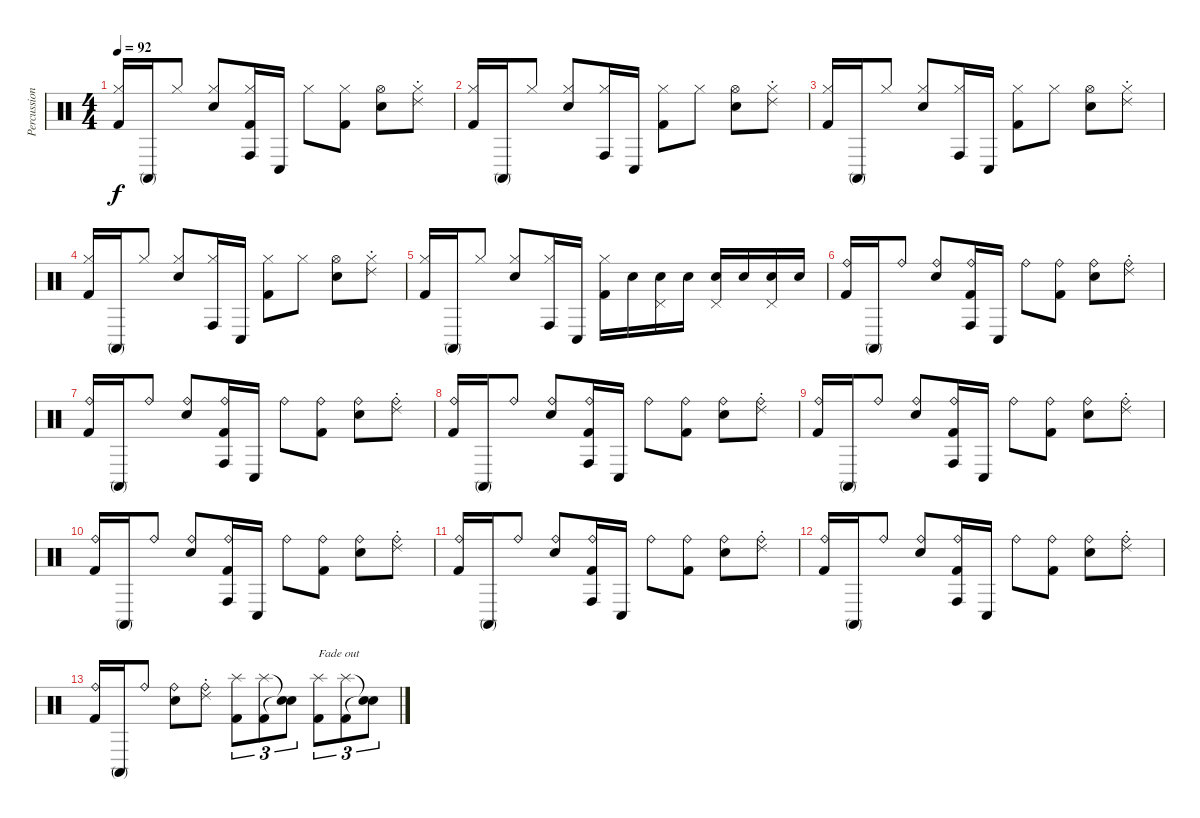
\track ("Percussion" "Percussion") {instrument percussion}
\staff {score}
\articulation defaults
\ts (4 4)
\tempo 92
\clef neutral
\ks c
("Hi-Hat (closed)" "Kick (hit) 2").16{dy f} "Conga high (mute)".16 "Hi-Hat (closed)".8 ("Hi-Hat (closed)" "Metronome (bell)").8 ("Hi-Hat (closed)" "Conga high (hit)" "Kick (hit) 2").16 "Conga low (hit)".16 "Hi-Hat (closed)".8 ("Hi-Hat (closed)" "Kick (hit) 2").8 ("Hi-Hat (open)" "Metronome (bell)").8 ("Hi-Hat (closed)" "Ride (choke) 2").8 |
("Hi-Hat (closed)" "Kick (hit) 2").16 "Conga high (mute)".16 "Hi-Hat (closed)".8 ("Hi-Hat (closed)" "Metronome (bell)").8 ("Hi-Hat (closed)" "Conga high (hit)").16 "Conga low (hit)".16 ("Hi-Hat (closed)" "Kick (hit) 2").8 "Hi-Hat (closed)".8 ("Hi-Hat (open)" "Metronome (bell)").8 ("Hi-Hat (closed)" "Ride (choke) 2").8 |
("Hi-Hat (closed)" "Kick (hit) 2").16 "Conga high (mute)".16 "Hi-Hat (closed)".8 ("Hi-Hat (closed)" "Metronome (bell)").8 ("Hi-Hat (closed)" "Conga high (hit)").16 "Conga low (hit)".16 ("Hi-Hat (closed)" "Kick (hit) 2").8 "Hi-Hat (closed)".8 ("Hi-Hat (open)" "Metronome (bell)").8 ("Hi-Hat (closed)" "Ride (choke) 2").8 |
("Hi-Hat (closed)" "Kick (hit) 2").16 "Conga high (mute)".16 "Hi-Hat (closed)".8 ("Hi-Hat (closed)" "Metronome (bell)").8 ("Hi-Hat (closed)" "Conga high (hit)").16 "Conga low (hit)".16 ("Hi-Hat (closed)" "Kick (hit) 2").8 "Hi-Hat (closed)".8 ("Hi-Hat (open)" "Metronome (bell)").8 ("Hi-Hat (closed)" "Ride (choke) 2").8 |
("Hi-Hat (closed)" "Kick (hit) 2").16 "Conga high (mute)".16 "Hi-Hat (closed)".8 ("Hi-Hat (closed)" "Metronome (bell)").8 ("Hi-Hat (closed)" "Conga high (hit)").16 "Conga low (hit)".16 ("Hi-Hat (closed)" "Kick (hit) 2").16 "Metronome (bell)".16 ("Pedal Hi-Hat (hit)" "Metronome (bell)").16 "Metronome (bell)".16 ("Pedal Hi-Hat (hit)" "Metronome (bell)").16 "Metronome (bell)".16 ("Pedal Hi-Hat (hit)" "Metronome (bell)").16 "Metronome (bell)".16 |
("Ride (bell)" "Kick (hit) 2").16 "Conga high (mute)".16 "Ride (bell)".8 ("Ride (bell)" "Metronome (bell)").8 ("Ride (bell)" "Conga high (hit)" "Kick (hit) 2").16 "Conga low (hit)".16 "Ride (bell)".8 ("Ride (bell)" "Kick (hit) 2").8 ("Ride (bell)" "Metronome (bell)").8 ("Ride (bell)" "Ride (choke) 2").8 |
("Ride (bell)" "Kick (hit) 2").16 "Conga high (mute)".16 "Ride (bell)".8 ("Ride (bell)" "Metronome (bell)").8 ("Ride (bell)" "Conga high (hit)" "Kick (hit) 2").16 "Conga low (hit)".16 "Ride (bell)".8 ("Ride (bell)" "Kick (hit) 2").8 ("Ride (bell)" "Metronome (bell)").8 ("Ride (bell)" "Ride (choke) 2").8 |
("Ride (bell)" "Kick (hit) 2").16 "Conga high (mute)".16 "Ride (bell)".8 ("Ride (bell)" "Metronome (bell)").8 ("Ride (bell)" "Conga high (hit)" "Kick (hit) 2").16 "Conga low (hit)".16 "Ride (bell)".8 ("Ride (bell)" "Kick (hit) 2").8 ("Ride (bell)" "Metronome (bell)").8 ("Ride (bell)" "Ride (choke) 2").8 |
("Ride (bell)" "Kick (hit) 2").16 "Conga high (mute)".16 "Ride (bell)".8 ("Ride (bell)" "Metronome (bell)").8 ("Ride (bell)" "Conga high (hit)" "Kick (hit) 2").16 "Conga low (hit)".16 "Ride (bell)".8 ("Ride (bell)" "Kick (hit) 2").8 ("Ride (bell)" "Metronome (bell)").8 ("Ride (bell)" "Ride (choke) 2").8 |
("Ride (bell)" "Kick (hit) 2").16 "Conga high (mute)".16 "Ride (bell)".8 ("Ride (bell)" "Metronome (bell)").8 ("Ride (bell)" "Conga high (hit)" "Kick (hit) 2").16 "Conga low (hit)".16 "Ride (bell)".8 ("Ride (bell)" "Kick (hit) 2").8 ("Ride (bell)" "Metronome (bell)").8 ("Ride (bell)" "Ride (choke) 2").8 |
("Ride (bell)" "Kick (hit) 2").16 "Conga high (mute)".16 "Ride (bell)".8 ("Ride (bell)" "Metronome (bell)").8 ("Ride (bell)" "Conga high (hit)" "Kick (hit) 2").16 "Conga low (hit)".16 "Ride (bell)".8 ("Ride (bell)" "Kick (hit) 2").8 ("Ride (bell)" "Metronome (bell)").8 ("Ride (bell)" "Ride (choke) 2").8 |
("Ride (bell)" "Kick (hit) 2").16 "Conga high (mute)".16 "Ride (bell)".8 ("Ride (bell)" "Metronome (bell)").8 ("Ride (bell)" "Conga high (hit)" "Kick (hit) 2").16 "Conga low (hit)".16 "Ride (bell)".8 ("Ride (bell)" "Kick (hit) 2").8 ("Ride (bell)" "Metronome (bell)").8 ("Ride (bell)" "Ride (choke) 2").8 |
("Ride (bell)" "Kick (hit) 2").16 "Conga high (mute)".16 "Ride (bell)".8 ("Ride (bell)" "Metronome (bell)").8 ("Ride (bell)" "Ride (choke) 2").8 ("Splash (hit)" "Kick (hit) 2").8{tu (3 2)} ("Splash (hit)" "Kick (hit) 2").8{tu (3 2)} ("Snare (hit)"{t} "Snare (hit)"{t}).8{tu (3 2)} ("Splash (hit)" "Kick (hit) 2").8{tu (3 2) txt "Fade out"} ("Splash (hit)" "Kick (hit) 2").8{tu (3 2)} ("Snare (hit)"{t} "Snare (hit)"{t}).8{tu (3 2)}
